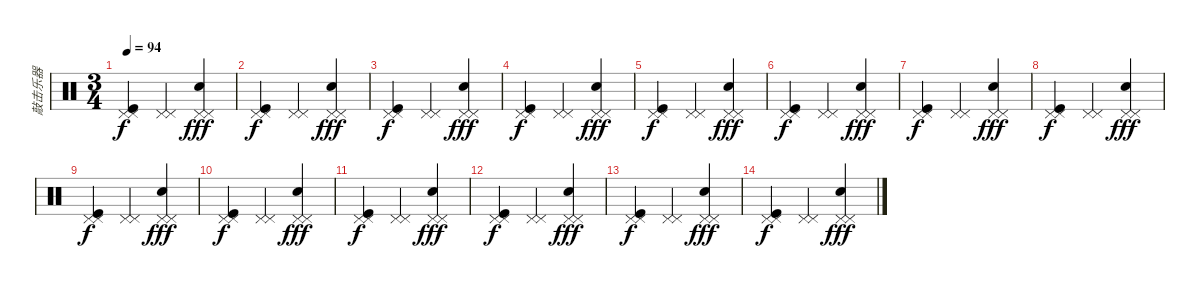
\track ("敲击乐器" "敲击乐器") {instrument percussion}
\staff {score}
\articulation defaults
\ts (3 4)
\tempo 94
\clef neutral
\ks c
("Pedal Hi-Hat (hit)" "Pedal Hi-Hat (hit)" "Kick (hit)").4{dy f} ("Pedal Hi-Hat (hit)" "Pedal Hi-Hat (hit)").4 ("Pedal Hi-Hat (hit)" "Pedal Hi-Hat (hit)" "Snare (hit) 2").4{dy fff} |
("Pedal Hi-Hat (hit)" "Pedal Hi-Hat (hit)" "Kick (hit)").4{dy f} ("Pedal Hi-Hat (hit)" "Pedal Hi-Hat (hit)").4 ("Pedal Hi-Hat (hit)" "Pedal Hi-Hat (hit)" "Snare (hit) 2").4{dy fff} |
("Pedal Hi-Hat (hit)" "Pedal Hi-Hat (hit)" "Kick (hit)").4{dy f} ("Pedal Hi-Hat (hit)" "Pedal Hi-Hat (hit)").4 ("Pedal Hi-Hat (hit)" "Pedal Hi-Hat (hit)" "Snare (hit) 2").4{dy fff} |
("Pedal Hi-Hat (hit)" "Pedal Hi-Hat (hit)" "Kick (hit)").4{dy f} ("Pedal Hi-Hat (hit)" "Pedal Hi-Hat (hit)").4 ("Pedal Hi-Hat (hit)" "Pedal Hi-Hat (hit)" "Snare (hit) 2").4{dy fff} |
("Pedal Hi-Hat (hit)" "Pedal Hi-Hat (hit)" "Kick (hit)").4{dy f} ("Pedal Hi-Hat (hit)" "Pedal Hi-Hat (hit)").4 ("Pedal Hi-Hat (hit)" "Pedal Hi-Hat (hit)" "Snare (hit) 2").4{dy fff} |
("Pedal Hi-Hat (hit)" "Pedal Hi-Hat (hit)" "Kick (hit)").4{dy f} ("Pedal Hi-Hat (hit)" "Pedal Hi-Hat (hit)").4 ("Pedal Hi-Hat (hit)" "Pedal Hi-Hat (hit)" "Snare (hit) 2").4{dy fff} |
("Pedal Hi-Hat (hit)" "Pedal Hi-Hat (hit)" "Kick (hit)").4{dy f} ("Pedal Hi-Hat (hit)" "Pedal Hi-Hat (hit)").4 ("Pedal Hi-Hat (hit)" "Pedal Hi-Hat (hit)" "Snare (hit) 2").4{dy fff} |
("Pedal Hi-Hat (hit)" "Pedal Hi-Hat (hit)" "Kick (hit)").4{dy f} ("Pedal Hi-Hat (hit)" "Pedal Hi-Hat (hit)").4 ("Pedal Hi-Hat (hit)" "Pedal Hi-Hat (hit)" "Snare (hit) 2").4{dy fff} |
("Pedal Hi-Hat (hit)" "Pedal Hi-Hat (hit)" "Kick (hit)").4{dy f} ("Pedal Hi-Hat (hit)" "Pedal Hi-Hat (hit)").4 ("Pedal Hi-Hat (hit)" "Pedal Hi-Hat (hit)" "Snare (hit) 2").4{dy fff} |
("Pedal Hi-Hat (hit)" "Pedal Hi-Hat (hit)" "Kick (hit)").4{dy f} ("Pedal Hi-Hat (hit)" "Pedal Hi-Hat (hit)").4 ("Pedal Hi-Hat (hit)" "Pedal Hi-Hat (hit)" "Snare (hit) 2").4{dy fff} |
("Pedal Hi-Hat (hit)" "Pedal Hi-Hat (hit)" "Kick (hit)").4{dy f} ("Pedal Hi-Hat (hit)" "Pedal Hi-Hat (hit)").4 ("Pedal Hi-Hat (hit)" "Pedal Hi-Hat (hit)" "Snare (hit) 2").4{dy fff} |
("Pedal Hi-Hat (hit)" "Pedal Hi-Hat (hit)" "Kick (hit)").4{dy f} ("Pedal Hi-Hat (hit)" "Pedal Hi-Hat (hit)").4 ("Pedal Hi-Hat (hit)" "Pedal Hi-Hat (hit)" "Snare (hit) 2").4{dy fff} |
("Pedal Hi-Hat (hit)" "Pedal Hi-Hat (hit)" "Kick (hit)").4{dy f} ("Pedal Hi-Hat (hit)" "Pedal Hi-Hat (hit)").4 ("Pedal Hi-Hat (hit)" "Pedal Hi-Hat (hit)" "Snare (hit) 2").4{dy fff} |
("Pedal Hi-Hat (hit)" "Pedal Hi-Hat (hit)" "Kick (hit)").4{dy f} ("Pedal Hi-Hat (hit)" "Pedal Hi-Hat (hit)").4 ("Pedal Hi-Hat (hit)" "Pedal Hi-Hat (hit)" "Snare (hit) 2").4{dy fff}
